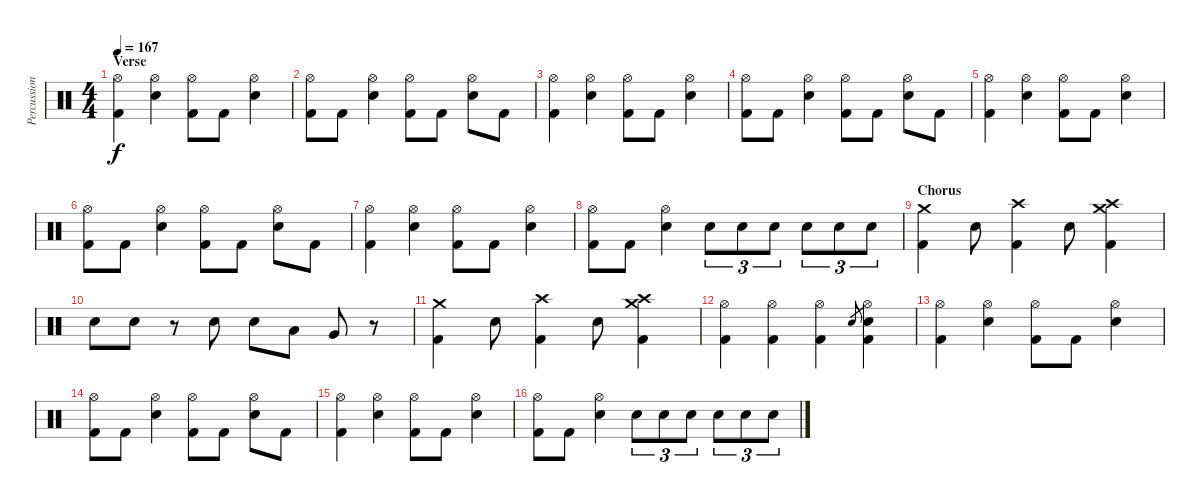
\track ("Percussion" "Percussion") {instrument percussion}
\staff {score}
\articulation defaults
\ts (4 4)
\section ("" "Verse")
\tempo 167
\clef neutral
\ks c
("Hi-Hat (open)" "Kick (hit) 2").4{dy f} ("Hi-Hat (open)" "Electric Snare (hit)").4 ("Hi-Hat (open)" "Kick (hit) 2").8 "Kick (hit) 2".8 ("Hi-Hat (open)" "Electric Snare (hit)").4 |
("Hi-Hat (open)" "Kick (hit) 2").8 "Kick (hit) 2".8 ("Hi-Hat (open)" "Electric Snare (hit)").4 ("Hi-Hat (open)" "Kick (hit) 2").8 "Kick (hit) 2".8 ("Hi-Hat (open)" "Electric Snare (hit)").8 "Kick (hit) 2".8 |
("Hi-Hat (open)" "Kick (hit) 2").4 ("Hi-Hat (open)" "Electric Snare (hit)").4 ("Hi-Hat (open)" "Kick (hit) 2").8 "Kick (hit) 2".8 ("Hi-Hat (open)" "Electric Snare (hit)").4 |
("Hi-Hat (open)" "Kick (hit) 2").8 "Kick (hit) 2".8 ("Hi-Hat (open)" "Electric Snare (hit)").4 ("Hi-Hat (open)" "Kick (hit) 2").8 "Kick (hit) 2".8 ("Hi-Hat (open)" "Electric Snare (hit)").8 "Kick (hit) 2".8 |
("Hi-Hat (open)" "Kick (hit) 2").4 ("Hi-Hat (open)" "Electric Snare (hit)").4 ("Hi-Hat (open)" "Kick (hit) 2").8 "Kick (hit) 2".8 ("Hi-Hat (open)" "Electric Snare (hit)").4 |
("Hi-Hat (open)" "Kick (hit) 2").8 "Kick (hit) 2".8 ("Hi-Hat (open)" "Electric Snare (hit)").4 ("Hi-Hat (open)" "Kick (hit) 2").8 "Kick (hit) 2".8 ("Hi-Hat (open)" "Electric Snare (hit)").8 "Kick (hit) 2".8 |
("Hi-Hat (open)" "Kick (hit) 2").4 ("Hi-Hat (open)" "Electric Snare (hit)").4 ("Hi-Hat (open)" "Kick (hit) 2").8 "Kick (hit) 2".8 ("Hi-Hat (open)" "Electric Snare (hit)").4 |
("Hi-Hat (open)" "Kick (hit) 2").8 "Kick (hit) 2".8 ("Hi-Hat (open)" "Electric Snare (hit)").4 "Electric Snare (hit)".8{tu (3 2)} "Electric Snare (hit)".8{tu (3 2)} "Electric Snare (hit)".8{tu (3 2)} "Electric Snare (hit)".8{tu (3 2)} "Electric Snare (hit)".8{tu (3 2)} "Electric Snare (hit)".8{tu (3 2)} |
\section ("" "Chorus")
("Crash medium (hit)" "Kick (hit) 2").4 "Electric Snare (hit)".8 ("Crash high (hit)" "Kick (hit) 2").4 "Electric Snare (hit)".8 ("Crash medium (hit)" "Crash high (hit)" "Kick (hit) 2").4 |
"Electric Snare (hit)".8 "Electric Snare (hit)".8 r.8 "Electric Snare (hit)".8 "Electric Snare (hit)".8 "Low Tom (hit)".8 "Very Low Tom (hit)".8 r.8 |
("Crash medium (hit)" "Kick (hit) 2").4 "Electric Snare (hit)".8 ("Crash high (hit)" "Kick (hit) 2").4 "Electric Snare (hit)".8 ("Crash medium (hit)" "Crash high (hit)" "Kick (hit) 2").4 |
("Hi-Hat (open)" "Kick (hit) 2").4 ("Hi-Hat (open)" "Kick (hit) 2").4 ("Hi-Hat (open)" "Kick (hit) 2").4 "Electric Snare (hit)".8{gr} ("Hi-Hat (open)" "Electric Snare (hit)" "Kick (hit) 2").4 |
("Hi-Hat (open)" "Kick (hit) 2").4 ("Hi-Hat (open)" "Electric Snare (hit)").4 ("Hi-Hat (open)" "Kick (hit) 2").8 "Kick (hit) 2".8 ("Hi-Hat (open)" "Electric Snare (hit)").4 |
("Hi-Hat (open)" "Kick (hit) 2").8 "Kick (hit) 2".8 ("Hi-Hat (open)" "Electric Snare (hit)").4 ("Hi-Hat (open)" "Kick (hit) 2").8 "Kick (hit) 2".8 ("Hi-Hat (open)" "Electric Snare (hit)").8 "Kick (hit) 2".8 |
("Hi-Hat (open)" "Kick (hit) 2").4 ("Hi-Hat (open)" "Electric Snare (hit)").4 ("Hi-Hat (open)" "Kick (hit) 2").8 "Kick (hit) 2".8 ("Hi-Hat (open)" "Electric Snare (hit)").4 |
("Hi-Hat (open)" "Kick (hit) 2").8 "Kick (hit) 2".8 ("Hi-Hat (open)" "Electric Snare (hit)").4 "Electric Snare (hit)".8{tu (3 2)} "Electric Snare (hit)".8{tu (3 2)} "Electric Snare (hit)".8{tu (3 2)} "Electric Snare (hit)".8{tu (3 2)} "Electric Snare (hit)".8{tu (3 2)} "Electric Snare (hit)".8{tu (3 2)}
